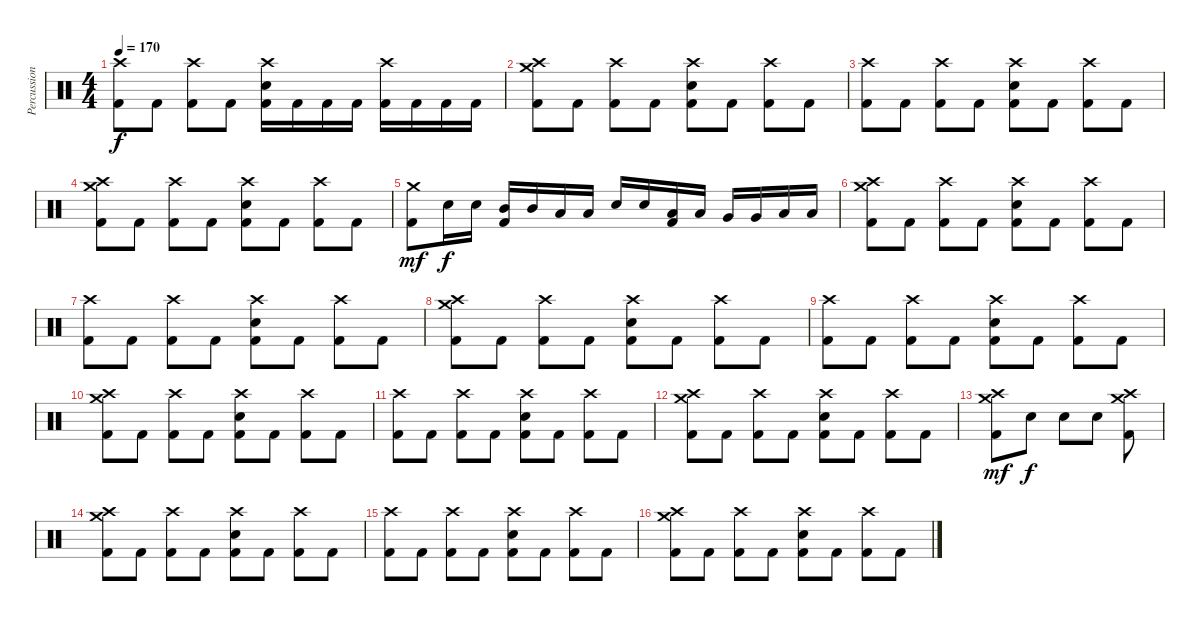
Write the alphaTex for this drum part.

\track ("Percussion" "Percussion") {instrument percussion}
\staff {score}
\articulation defaults
\ts (4 4)
\tempo 170
\clef neutral
\ks c
("Crash high (hit)" "Kick (hit) 2").8{dy f} "Kick (hit) 2".8 ("Crash high (hit)" "Kick (hit) 2").8 "Kick (hit) 2".8 ("Crash high (hit)" "Snare (hit) 2" "Kick (hit) 2").16 "Kick (hit) 2".16 "Kick (hit) 2".16 "Kick (hit) 2".16 ("Crash high (hit)" "Kick (hit) 2").16 "Kick (hit) 2".16 "Kick (hit) 2".16 "Kick (hit) 2".16 |
("Crash medium (hit)" "Crash high (hit)" "Kick (hit) 2").8 "Kick (hit) 2".8 ("Crash high (hit)" "Kick (hit) 2").8 "Kick (hit) 2".8 ("Crash high (hit)" "Snare (hit) 2" "Kick (hit) 2").8 "Kick (hit) 2".8 ("Crash high (hit)" "Kick (hit) 2").8 "Kick (hit) 2".8 |
("Crash high (hit)" "Kick (hit) 2").8 "Kick (hit) 2".8 ("Crash high (hit)" "Kick (hit) 2").8 "Kick (hit) 2".8 ("Crash high (hit)" "Snare (hit) 2" "Kick (hit) 2").8 "Kick (hit) 2".8 ("Crash high (hit)" "Kick (hit) 2").8 "Kick (hit) 2".8 |
("Crash medium (hit)" "Crash high (hit)" "Kick (hit) 2").8 "Kick (hit) 2".8 ("Crash high (hit)" "Kick (hit) 2").8 "Kick (hit) 2".8 ("Crash high (hit)" "Snare (hit) 2" "Kick (hit) 2").8 "Kick (hit) 2".8 ("Crash high (hit)" "Kick (hit) 2").8 "Kick (hit) 2".8 |
("Kick (hit) 2" "Crash medium (hit)").8{dy mf} "Snare (hit) 2".16{dy f} "Snare (hit) 2".16 ("Kick (hit) 2" "Mid Tom (hit)").16 "Mid Tom (hit)".16 "Low Tom (hit)".16 "Low Tom (hit)".16 "Snare (hit) 2".16 "Snare (hit) 2".16 ("Kick (hit) 2" "Low Tom (hit)").16 "Low Tom (hit)".16 "Very Low Tom (hit)".16 "Very Low Tom (hit)".16 "Low Floor Tom (hit)".16 "Low Floor Tom (hit)".16 |
("Crash medium (hit)" "Crash high (hit)" "Kick (hit) 2").8 "Kick (hit) 2".8 ("Crash high (hit)" "Kick (hit) 2").8 "Kick (hit) 2".8 ("Crash high (hit)" "Snare (hit) 2" "Kick (hit) 2").8 "Kick (hit) 2".8 ("Crash high (hit)" "Kick (hit) 2").8 "Kick (hit) 2".8 |
("Crash high (hit)" "Kick (hit) 2").8 "Kick (hit) 2".8 ("Crash high (hit)" "Kick (hit) 2").8 "Kick (hit) 2".8 ("Crash high (hit)" "Snare (hit) 2" "Kick (hit) 2").8 "Kick (hit) 2".8 ("Crash high (hit)" "Kick (hit) 2").8 "Kick (hit) 2".8 |
("Crash medium (hit)" "Crash high (hit)" "Kick (hit) 2").8 "Kick (hit) 2".8 ("Crash high (hit)" "Kick (hit) 2").8 "Kick (hit) 2".8 ("Crash high (hit)" "Snare (hit) 2" "Kick (hit) 2").8 "Kick (hit) 2".8 ("Crash high (hit)" "Kick (hit) 2").8 "Kick (hit) 2".8 |
("Crash high (hit)" "Kick (hit) 2").8 "Kick (hit) 2".8 ("Crash high (hit)" "Kick (hit) 2").8 "Kick (hit) 2".8 ("Crash high (hit)" "Snare (hit) 2" "Kick (hit) 2").8 "Kick (hit) 2".8 ("Crash high (hit)" "Kick (hit) 2").8 "Kick (hit) 2".8 |
("Crash medium (hit)" "Crash high (hit)" "Kick (hit) 2").8 "Kick (hit) 2".8 ("Crash high (hit)" "Kick (hit) 2").8 "Kick (hit) 2".8 ("Crash high (hit)" "Snare (hit) 2" "Kick (hit) 2").8 "Kick (hit) 2".8 ("Crash high (hit)" "Kick (hit) 2").8 "Kick (hit) 2".8 |
("Crash high (hit)" "Kick (hit) 2").8 "Kick (hit) 2".8 ("Crash high (hit)" "Kick (hit) 2").8 "Kick (hit) 2".8 ("Crash high (hit)" "Snare (hit) 2" "Kick (hit) 2").8 "Kick (hit) 2".8 ("Crash high (hit)" "Kick (hit) 2").8 "Kick (hit) 2".8 |
("Crash medium (hit)" "Crash high (hit)" "Kick (hit) 2").8 "Kick (hit) 2".8 ("Crash high (hit)" "Kick (hit) 2").8 "Kick (hit) 2".8 ("Crash high (hit)" "Snare (hit) 2" "Kick (hit) 2").8 "Kick (hit) 2".8 ("Crash high (hit)" "Kick (hit) 2").8 "Kick (hit) 2".8 |
("Kick (hit) 2" "Crash high (hit)" "Crash medium (hit)").8{dy mf} "Snare (hit)".8{dy f} "Snare (hit)".8 "Snare (hit)".8 ("Crash medium (hit)" "Crash high (hit)" "Kick (hit) 2").8 |
("Crash medium (hit)" "Crash high (hit)" "Kick (hit) 2").8 "Kick (hit) 2".8 ("Crash high (hit)" "Kick (hit) 2").8 "Kick (hit) 2".8 ("Crash high (hit)" "Snare (hit) 2" "Kick (hit) 2").8 "Kick (hit) 2".8 ("Crash high (hit)" "Kick (hit) 2").8 "Kick (hit) 2".8 |
("Crash high (hit)" "Kick (hit) 2").8 "Kick (hit) 2".8 ("Crash high (hit)" "Kick (hit) 2").8 "Kick (hit) 2".8 ("Crash high (hit)" "Snare (hit) 2" "Kick (hit) 2").8 "Kick (hit) 2".8 ("Crash high (hit)" "Kick (hit) 2").8 "Kick (hit) 2".8 |
("Crash medium (hit)" "Crash high (hit)" "Kick (hit) 2").8 "Kick (hit) 2".8 ("Crash high (hit)" "Kick (hit) 2").8 "Kick (hit) 2".8 ("Crash high (hit)" "Snare (hit) 2" "Kick (hit) 2").8 "Kick (hit) 2".8 ("Crash high (hit)" "Kick (hit) 2").8 "Kick (hit) 2".8
